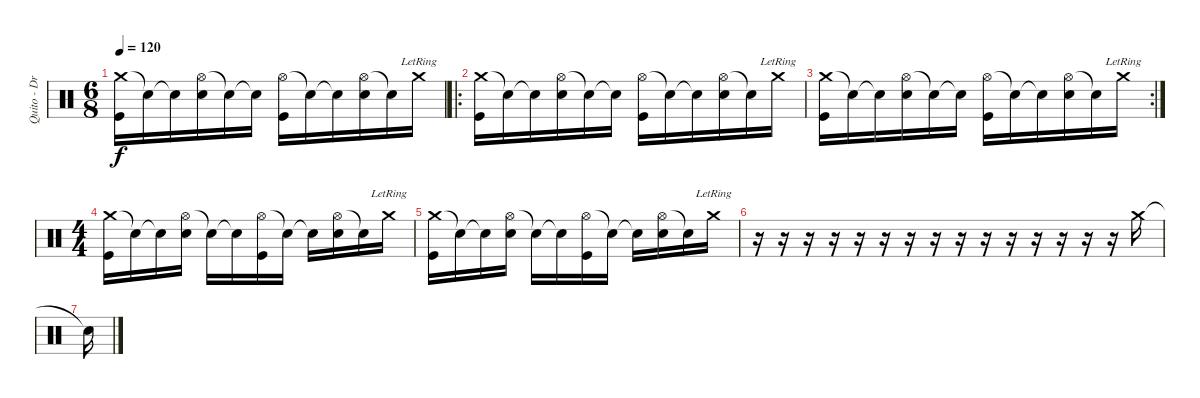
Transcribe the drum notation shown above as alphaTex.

\track ("Quito - Drums" "Quito - Dr") {instrument percussion}
\staff {score}
\articulation defaults
\ts (6 8)
\tempo 120
\clef neutral
\ks c
("Crash medium (hit)" "Kick (hit)").16{dy f} "Snare (hit)"{t}.16 "Snare (hit)"{t}.16 ("Hi-Hat (open)" "Snare (hit) 2").16 "Snare (hit)"{t}.16 "Snare (hit)"{t}.16 ("Hi-Hat (open)" "Kick (hit)").16 "Snare (hit)"{t}.16 "Snare (hit)"{t}.16 ("Hi-Hat (open)" "Snare (hit) 2").16 "Snare (hit)"{t}.16 "Crash medium (hit)"{lr}.16 |
\ro
("Crash medium (hit)" "Kick (hit)").16 "Snare (hit)"{t}.16 "Snare (hit)"{t}.16 ("Hi-Hat (open)" "Snare (hit) 2").16 "Snare (hit)"{t}.16 "Snare (hit)"{t}.16 ("Hi-Hat (open)" "Kick (hit)").16 "Snare (hit)"{t}.16 "Snare (hit)"{t}.16 ("Hi-Hat (open)" "Snare (hit) 2").16 "Snare (hit)"{t}.16 "Crash medium (hit)"{lr}.16 |
\rc 2
("Crash medium (hit)" "Kick (hit)").16 "Snare (hit)"{t}.16 "Snare (hit)"{t}.16 ("Hi-Hat (open)" "Snare (hit) 2").16 "Snare (hit)"{t}.16 "Snare (hit)"{t}.16 ("Hi-Hat (open)" "Kick (hit)").16 "Snare (hit)"{t}.16 "Snare (hit)"{t}.16 ("Hi-Hat (open)" "Snare (hit) 2").16 "Snare (hit)"{t}.16 "Crash medium (hit)"{lr}.16 |
\ts (4 4)
("Crash medium (hit)" "Kick (hit)").16 "Snare (hit)"{t}.16 "Snare (hit)"{t}.16 ("Hi-Hat (open)" "Snare (hit) 2").16 "Snare (hit)"{t}.16 "Snare (hit)"{t}.16 ("Hi-Hat (open)" "Kick (hit)").16 "Snare (hit)"{t}.16 "Snare (hit)"{t}.16 ("Hi-Hat (open)" "Snare (hit) 2").16 "Snare (hit)"{t}.16 "Crash medium (hit)"{lr}.16 |
("Crash medium (hit)" "Kick (hit)").16 "Snare (hit)"{t}.16 "Snare (hit)"{t}.16 ("Hi-Hat (open)" "Snare (hit) 2").16 "Snare (hit)"{t}.16 "Snare (hit)"{t}.16 ("Hi-Hat (open)" "Kick (hit)").16 "Snare (hit)"{t}.16 "Snare (hit)"{t}.16 ("Hi-Hat (open)" "Snare (hit) 2").16 "Snare (hit)"{t}.16 "Crash medium (hit)"{lr}.16 |
r.16 r.16 r.16 r.16 r.16 r.16 r.16 r.16 r.16 r.16 r.16 r.16 r.16 r.16 r.16 "Crash medium (hit)".16 |
"Snare (hit)"{t}.16
